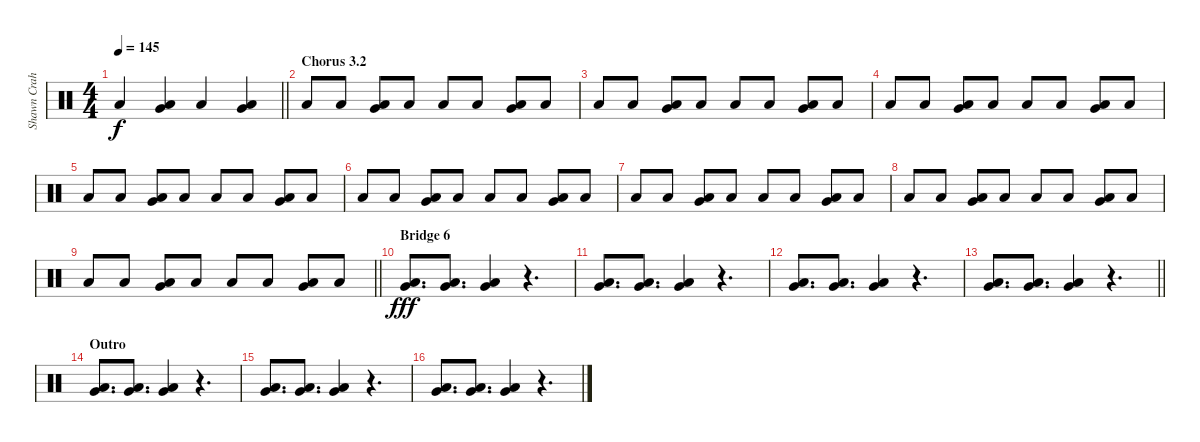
\track ("Shawn Crahan" "Shawn Crah") {instrument percussion}
\staff {score}
\articulation defaults
\ts (4 4)
\tempo 145
\clef neutral
\barLineRight lightlight
\ks c "Low Floor Tom (hit)".4{dy f}
("Very Low Tom (hit)" "Low Floor Tom (hit)").4 "Low Floor Tom (hit)".4 ("Very Low Tom (hit)" "Low Floor Tom (hit)").4 |
\section ("" "Chorus 3.2")
"Low Floor Tom (hit)".8 "Low Floor Tom (hit)".8 ("Very Low Tom (hit)" "Low Floor Tom (hit)").8 "Low Floor Tom (hit)".8 "Low Floor Tom (hit)".8 "Low Floor Tom (hit)".8 ("Very Low Tom (hit)" "Low Floor Tom (hit)").8 "Low Floor Tom (hit)".8 |
"Low Floor Tom (hit)".8 "Low Floor Tom (hit)".8 ("Very Low Tom (hit)" "Low Floor Tom (hit)").8 "Low Floor Tom (hit)".8 "Low Floor Tom (hit)".8 "Low Floor Tom (hit)".8 ("Very Low Tom (hit)" "Low Floor Tom (hit)").8 "Low Floor Tom (hit)".8 |
"Low Floor Tom (hit)".8 "Low Floor Tom (hit)".8 ("Very Low Tom (hit)" "Low Floor Tom (hit)").8 "Low Floor Tom (hit)".8 "Low Floor Tom (hit)".8 "Low Floor Tom (hit)".8 ("Very Low Tom (hit)" "Low Floor Tom (hit)").8 "Low Floor Tom (hit)".8 |
"Low Floor Tom (hit)".8 "Low Floor Tom (hit)".8 ("Very Low Tom (hit)" "Low Floor Tom (hit)").8 "Low Floor Tom (hit)".8 "Low Floor Tom (hit)".8 "Low Floor Tom (hit)".8 ("Very Low Tom (hit)" "Low Floor Tom (hit)").8 "Low Floor Tom (hit)".8 |
"Low Floor Tom (hit)".8 "Low Floor Tom (hit)".8 ("Very Low Tom (hit)" "Low Floor Tom (hit)").8 "Low Floor Tom (hit)".8 "Low Floor Tom (hit)".8 "Low Floor Tom (hit)".8 ("Very Low Tom (hit)" "Low Floor Tom (hit)").8 "Low Floor Tom (hit)".8 |
"Low Floor Tom (hit)".8 "Low Floor Tom (hit)".8 ("Very Low Tom (hit)" "Low Floor Tom (hit)").8 "Low Floor Tom (hit)".8 "Low Floor Tom (hit)".8 "Low Floor Tom (hit)".8 ("Very Low Tom (hit)" "Low Floor Tom (hit)").8 "Low Floor Tom (hit)".8 |
"Low Floor Tom (hit)".8 "Low Floor Tom (hit)".8 ("Very Low Tom (hit)" "Low Floor Tom (hit)").8 "Low Floor Tom (hit)".8 "Low Floor Tom (hit)".8 "Low Floor Tom (hit)".8 ("Very Low Tom (hit)" "Low Floor Tom (hit)").8 "Low Floor Tom (hit)".8 |
\barLineRight lightlight "Low Floor Tom (hit)".8 "Low Floor Tom (hit)".8
("Very Low Tom (hit)" "Low Floor Tom (hit)").8 "Low Floor Tom (hit)".8 "Low Floor Tom (hit)".8 "Low Floor Tom (hit)".8 ("Very Low Tom (hit)" "Low Floor Tom (hit)").8 "Low Floor Tom (hit)".8 |
\section ("" "Bridge 6")
("Very Low Tom (hit)" "Low Floor Tom (hit)").8{d dy fff} ("Very Low Tom (hit)" "Low Floor Tom (hit)").8{d} ("Very Low Tom (hit)" "Low Floor Tom (hit)").4 r.4{d} |
("Very Low Tom (hit)" "Low Floor Tom (hit)").8{d} ("Very Low Tom (hit)" "Low Floor Tom (hit)").8{d} ("Very Low Tom (hit)" "Low Floor Tom (hit)").4 r.4{d} |
("Very Low Tom (hit)" "Low Floor Tom (hit)").8{d} ("Very Low Tom (hit)" "Low Floor Tom (hit)").8{d} ("Very Low Tom (hit)" "Low Floor Tom (hit)").4 r.4{d} |
\barLineRight lightlight
("Very Low Tom (hit)" "Low Floor Tom (hit)").8{d} ("Very Low Tom (hit)" "Low Floor Tom (hit)").8{d} ("Very Low Tom (hit)" "Low Floor Tom (hit)").4 r.4{d} |
\section ("" "Outro")
("Very Low Tom (hit)" "Low Floor Tom (hit)").8{d} ("Very Low Tom (hit)" "Low Floor Tom (hit)").8{d} ("Very Low Tom (hit)" "Low Floor Tom (hit)").4 r.4{d} |
("Very Low Tom (hit)" "Low Floor Tom (hit)").8{d} ("Very Low Tom (hit)" "Low Floor Tom (hit)").8{d} ("Very Low Tom (hit)" "Low Floor Tom (hit)").4 r.4{d} |
("Very Low Tom (hit)" "Low Floor Tom (hit)").8{d} ("Very Low Tom (hit)" "Low Floor Tom (hit)").8{d} ("Very Low Tom (hit)" "Low Floor Tom (hit)").4 r.4{d}
